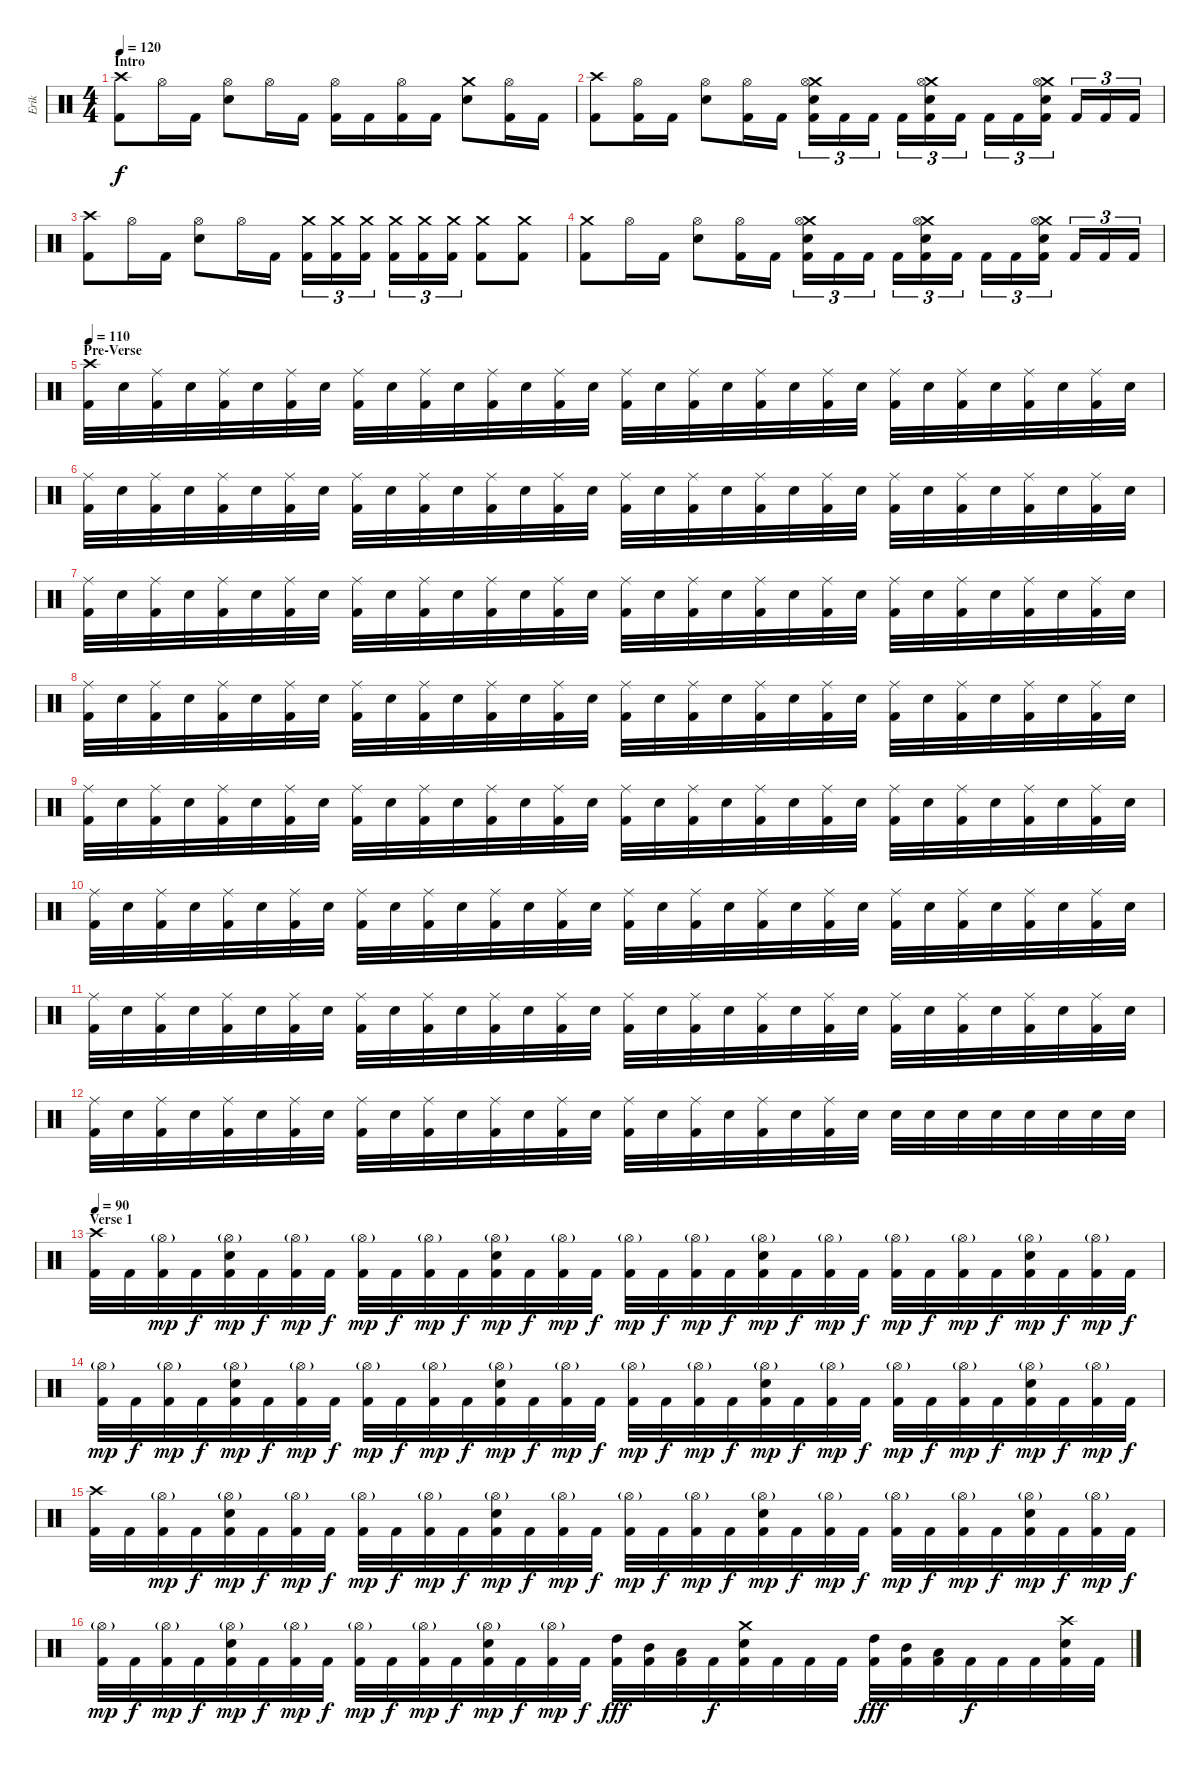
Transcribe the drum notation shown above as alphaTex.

\track ("Erik" "Erik") {instrument percussion}
\staff {score}
\articulation defaults
\ts (4 4)
\section ("" "Intro")
\tempo 120
\clef neutral
\ks c
("Crash high (hit)" "Kick (hit) 2").8{dy f} "Hi-Hat (open)".16 "Kick (hit) 2".16 ("Hi-Hat (open)" "Electric Snare (hit)").8 "Hi-Hat (open)".16 "Kick (hit) 2".16 ("Hi-Hat (open)" "Kick (hit) 2").16 "Kick (hit) 2".16 ("Hi-Hat (open)" "Kick (hit) 2").16 "Kick (hit) 2".16 ("Crash medium (hit)" "Electric Snare (hit)").8 ("Hi-Hat (open)" "Kick (hit) 2").16 "Kick (hit) 2".16 |
("Crash high (hit)" "Kick (hit) 2").8 ("Hi-Hat (open)" "Kick (hit) 2").16 "Kick (hit) 2".16 ("Hi-Hat (open)" "Electric Snare (hit)").8 ("Hi-Hat (open)" "Kick (hit) 2").16 "Kick (hit) 2".16 ("Crash medium (hit)" "Hi-Hat (open)" "Electric Snare (hit)" "Kick (hit) 2").16{tu (3 2)} "Kick (hit) 2".16{tu (3 2)} "Kick (hit) 2".16{tu (3 2)} "Kick (hit) 2".16{tu (3 2)} ("Crash medium (hit)" "Hi-Hat (open)" "Electric Snare (hit)" "Kick (hit) 2").16{tu (3 2)} "Kick (hit) 2".16{tu (3 2)} "Kick (hit) 2".16{tu (3 2)} "Kick (hit) 2".16{tu (3 2)} ("Crash medium (hit)" "Hi-Hat (open)" "Electric Snare (hit)" "Kick (hit) 2").16{tu (3 2)} "Kick (hit) 2".16{tu (3 2)} "Kick (hit) 2".16{tu (3 2)} "Kick (hit) 2".16{tu (3 2)} |
("Crash high (hit)" "Kick (hit) 2").8 "Hi-Hat (open)".16 "Kick (hit) 2".16 ("Hi-Hat (open)" "Electric Snare (hit)").8 "Hi-Hat (open)".16 "Kick (hit) 2".16 ("Crash medium (hit)" "Kick (hit) 2").16{tu (3 2)} ("Crash medium (hit)" "Kick (hit) 2").16{tu (3 2)} ("Crash medium (hit)" "Kick (hit) 2").16{tu (3 2)} ("Crash medium (hit)" "Kick (hit) 2").16{tu (3 2)} ("Crash medium (hit)" "Kick (hit) 2").16{tu (3 2)} ("Crash medium (hit)" "Kick (hit) 2").16{tu (3 2)} ("Crash medium (hit)" "Kick (hit) 2").8 ("Crash medium (hit)" "Kick (hit) 2").8 |
("Crash medium (hit)" "Kick (hit) 2").8 "Hi-Hat (open)".16 "Kick (hit) 2".16 ("Hi-Hat (open)" "Electric Snare (hit)").8 ("Hi-Hat (open)" "Kick (hit) 2").16 "Kick (hit) 2".16 ("Crash medium (hit)" "Hi-Hat (open)" "Electric Snare (hit)" "Kick (hit) 2").16{tu (3 2)} "Kick (hit) 2".16{tu (3 2)} "Kick (hit) 2".16{tu (3 2)} "Kick (hit) 2".16{tu (3 2)} ("Crash medium (hit)" "Hi-Hat (open)" "Electric Snare (hit)" "Kick (hit) 2").16{tu (3 2)} "Kick (hit) 2".16{tu (3 2)} "Kick (hit) 2".16{tu (3 2)} "Kick (hit) 2".16{tu (3 2)} ("Crash medium (hit)" "Hi-Hat (open)" "Electric Snare (hit)" "Kick (hit) 2").16{tu (3 2)} "Kick (hit) 2".16{tu (3 2)} "Kick (hit) 2".16{tu (3 2)} "Kick (hit) 2".16{tu (3 2)} |
\section ("" "Pre-Verse")
\tempo 110
("Crash high (hit)" "Kick (hit) 2").32 "Electric Snare (hit)".32 ("Ride (middle)" "Kick (hit) 2").32 "Electric Snare (hit)".32 ("Ride (middle)" "Kick (hit) 2").32 "Electric Snare (hit)".32 ("Ride (middle)" "Kick (hit) 2").32 "Electric Snare (hit)".32 ("Ride (middle)" "Kick (hit) 2").32 "Electric Snare (hit)".32 ("Ride (middle)" "Kick (hit) 2").32 "Electric Snare (hit)".32 ("Ride (middle)" "Kick (hit) 2").32 "Electric Snare (hit)".32 ("Ride (middle)" "Kick (hit) 2").32 "Electric Snare (hit)".32 ("Ride (middle)" "Kick (hit) 2").32 "Electric Snare (hit)".32 ("Ride (middle)" "Kick (hit) 2").32 "Electric Snare (hit)".32 ("Ride (middle)" "Kick (hit) 2").32 "Electric Snare (hit)".32 ("Ride (middle)" "Kick (hit) 2").32 "Electric Snare (hit)".32 ("Ride (middle)" "Kick (hit) 2").32 "Electric Snare (hit)".32 ("Ride (middle)" "Kick (hit) 2").32 "Electric Snare (hit)".32 ("Ride (middle)" "Kick (hit) 2").32 "Electric Snare (hit)".32 ("Ride (middle)" "Kick (hit) 2").32 "Electric Snare (hit)".32 |
("Ride (middle)" "Kick (hit) 2").32 "Electric Snare (hit)".32 ("Ride (middle)" "Kick (hit) 2").32 "Electric Snare (hit)".32 ("Ride (middle)" "Kick (hit) 2").32 "Electric Snare (hit)".32 ("Ride (middle)" "Kick (hit) 2").32 "Electric Snare (hit)".32 ("Ride (middle)" "Kick (hit) 2").32 "Electric Snare (hit)".32 ("Ride (middle)" "Kick (hit) 2").32 "Electric Snare (hit)".32 ("Ride (middle)" "Kick (hit) 2").32 "Electric Snare (hit)".32 ("Ride (middle)" "Kick (hit) 2").32 "Electric Snare (hit)".32 ("Ride (middle)" "Kick (hit) 2").32 "Electric Snare (hit)".32 ("Ride (middle)" "Kick (hit) 2").32 "Electric Snare (hit)".32 ("Ride (middle)" "Kick (hit) 2").32 "Electric Snare (hit)".32 ("Ride (middle)" "Kick (hit) 2").32 "Electric Snare (hit)".32 ("Ride (middle)" "Kick (hit) 2").32 "Electric Snare (hit)".32 ("Ride (middle)" "Kick (hit) 2").32 "Electric Snare (hit)".32 ("Ride (middle)" "Kick (hit) 2").32 "Electric Snare (hit)".32 ("Ride (middle)" "Kick (hit) 2").32 "Electric Snare (hit)".32 |
("Ride (middle)" "Kick (hit) 2").32 "Electric Snare (hit)".32 ("Ride (middle)" "Kick (hit) 2").32 "Electric Snare (hit)".32 ("Ride (middle)" "Kick (hit) 2").32 "Electric Snare (hit)".32 ("Ride (middle)" "Kick (hit) 2").32 "Electric Snare (hit)".32 ("Ride (middle)" "Kick (hit) 2").32 "Electric Snare (hit)".32 ("Ride (middle)" "Kick (hit) 2").32 "Electric Snare (hit)".32 ("Ride (middle)" "Kick (hit) 2").32 "Electric Snare (hit)".32 ("Ride (middle)" "Kick (hit) 2").32 "Electric Snare (hit)".32 ("Ride (middle)" "Kick (hit) 2").32 "Electric Snare (hit)".32 ("Ride (middle)" "Kick (hit) 2").32 "Electric Snare (hit)".32 ("Ride (middle)" "Kick (hit) 2").32 "Electric Snare (hit)".32 ("Ride (middle)" "Kick (hit) 2").32 "Electric Snare (hit)".32 ("Ride (middle)" "Kick (hit) 2").32 "Electric Snare (hit)".32 ("Ride (middle)" "Kick (hit) 2").32 "Electric Snare (hit)".32 ("Ride (middle)" "Kick (hit) 2").32 "Electric Snare (hit)".32 ("Ride (middle)" "Kick (hit) 2").32 "Electric Snare (hit)".32 |
("Ride (middle)" "Kick (hit) 2").32 "Electric Snare (hit)".32 ("Ride (middle)" "Kick (hit) 2").32 "Electric Snare (hit)".32 ("Ride (middle)" "Kick (hit) 2").32 "Electric Snare (hit)".32 ("Ride (middle)" "Kick (hit) 2").32 "Electric Snare (hit)".32 ("Ride (middle)" "Kick (hit) 2").32 "Electric Snare (hit)".32 ("Ride (middle)" "Kick (hit) 2").32 "Electric Snare (hit)".32 ("Ride (middle)" "Kick (hit) 2").32 "Electric Snare (hit)".32 ("Ride (middle)" "Kick (hit) 2").32 "Electric Snare (hit)".32 ("Ride (middle)" "Kick (hit) 2").32 "Electric Snare (hit)".32 ("Ride (middle)" "Kick (hit) 2").32 "Electric Snare (hit)".32 ("Ride (middle)" "Kick (hit) 2").32 "Electric Snare (hit)".32 ("Ride (middle)" "Kick (hit) 2").32 "Electric Snare (hit)".32 ("Ride (middle)" "Kick (hit) 2").32 "Electric Snare (hit)".32 ("Ride (middle)" "Kick (hit) 2").32 "Electric Snare (hit)".32 ("Ride (middle)" "Kick (hit) 2").32 "Electric Snare (hit)".32 ("Ride (middle)" "Kick (hit) 2").32 "Electric Snare (hit)".32 |
("Ride (middle)" "Kick (hit) 2").32 "Electric Snare (hit)".32 ("Ride (middle)" "Kick (hit) 2").32 "Electric Snare (hit)".32 ("Ride (middle)" "Kick (hit) 2").32 "Electric Snare (hit)".32 ("Ride (middle)" "Kick (hit) 2").32 "Electric Snare (hit)".32 ("Ride (middle)" "Kick (hit) 2").32 "Electric Snare (hit)".32 ("Ride (middle)" "Kick (hit) 2").32 "Electric Snare (hit)".32 ("Ride (middle)" "Kick (hit) 2").32 "Electric Snare (hit)".32 ("Ride (middle)" "Kick (hit) 2").32 "Electric Snare (hit)".32 ("Ride (middle)" "Kick (hit) 2").32 "Electric Snare (hit)".32 ("Ride (middle)" "Kick (hit) 2").32 "Electric Snare (hit)".32 ("Ride (middle)" "Kick (hit) 2").32 "Electric Snare (hit)".32 ("Ride (middle)" "Kick (hit) 2").32 "Electric Snare (hit)".32 ("Ride (middle)" "Kick (hit) 2").32 "Electric Snare (hit)".32 ("Ride (middle)" "Kick (hit) 2").32 "Electric Snare (hit)".32 ("Ride (middle)" "Kick (hit) 2").32 "Electric Snare (hit)".32 ("Ride (middle)" "Kick (hit) 2").32 "Electric Snare (hit)".32 |
("Ride (middle)" "Kick (hit) 2").32 "Electric Snare (hit)".32 ("Ride (middle)" "Kick (hit) 2").32 "Electric Snare (hit)".32 ("Ride (middle)" "Kick (hit) 2").32 "Electric Snare (hit)".32 ("Ride (middle)" "Kick (hit) 2").32 "Electric Snare (hit)".32 ("Ride (middle)" "Kick (hit) 2").32 "Electric Snare (hit)".32 ("Ride (middle)" "Kick (hit) 2").32 "Electric Snare (hit)".32 ("Ride (middle)" "Kick (hit) 2").32 "Electric Snare (hit)".32 ("Ride (middle)" "Kick (hit) 2").32 "Electric Snare (hit)".32 ("Ride (middle)" "Kick (hit) 2").32 "Electric Snare (hit)".32 ("Ride (middle)" "Kick (hit) 2").32 "Electric Snare (hit)".32 ("Ride (middle)" "Kick (hit) 2").32 "Electric Snare (hit)".32 ("Ride (middle)" "Kick (hit) 2").32 "Electric Snare (hit)".32 ("Ride (middle)" "Kick (hit) 2").32 "Electric Snare (hit)".32 ("Ride (middle)" "Kick (hit) 2").32 "Electric Snare (hit)".32 ("Ride (middle)" "Kick (hit) 2").32 "Electric Snare (hit)".32 ("Ride (middle)" "Kick (hit) 2").32 "Electric Snare (hit)".32 |
("Ride (middle)" "Kick (hit) 2").32 "Electric Snare (hit)".32 ("Ride (middle)" "Kick (hit) 2").32 "Electric Snare (hit)".32 ("Ride (middle)" "Kick (hit) 2").32 "Electric Snare (hit)".32 ("Ride (middle)" "Kick (hit) 2").32 "Electric Snare (hit)".32 ("Ride (middle)" "Kick (hit) 2").32 "Electric Snare (hit)".32 ("Ride (middle)" "Kick (hit) 2").32 "Electric Snare (hit)".32 ("Ride (middle)" "Kick (hit) 2").32 "Electric Snare (hit)".32 ("Ride (middle)" "Kick (hit) 2").32 "Electric Snare (hit)".32 ("Ride (middle)" "Kick (hit) 2").32 "Electric Snare (hit)".32 ("Ride (middle)" "Kick (hit) 2").32 "Electric Snare (hit)".32 ("Ride (middle)" "Kick (hit) 2").32 "Electric Snare (hit)".32 ("Ride (middle)" "Kick (hit) 2").32 "Electric Snare (hit)".32 ("Ride (middle)" "Kick (hit) 2").32 "Electric Snare (hit)".32 ("Ride (middle)" "Kick (hit) 2").32 "Electric Snare (hit)".32 ("Ride (middle)" "Kick (hit) 2").32 "Electric Snare (hit)".32 ("Ride (middle)" "Kick (hit) 2").32 "Electric Snare (hit)".32 |
("Ride (middle)" "Kick (hit) 2").32 "Electric Snare (hit)".32 ("Ride (middle)" "Kick (hit) 2").32 "Electric Snare (hit)".32 ("Ride (middle)" "Kick (hit) 2").32 "Electric Snare (hit)".32 ("Ride (middle)" "Kick (hit) 2").32 "Electric Snare (hit)".32 ("Ride (middle)" "Kick (hit) 2").32 "Electric Snare (hit)".32 ("Ride (middle)" "Kick (hit) 2").32 "Electric Snare (hit)".32 ("Ride (middle)" "Kick (hit) 2").32 "Electric Snare (hit)".32 ("Ride (middle)" "Kick (hit) 2").32 "Electric Snare (hit)".32 ("Ride (middle)" "Kick (hit) 2").32 "Electric Snare (hit)".32 ("Ride (middle)" "Kick (hit) 2").32 "Electric Snare (hit)".32 ("Ride (middle)" "Kick (hit) 2").32 "Electric Snare (hit)".32 ("Ride (middle)" "Kick (hit) 2").32 "Electric Snare (hit)".32 "Electric Snare (hit)".32 "Electric Snare (hit)".32 "Electric Snare (hit)".32 "Electric Snare (hit)".32 "Electric Snare (hit)".32 "Electric Snare (hit)".32 "Electric Snare (hit)".32 "Electric Snare (hit)".32 |
\section ("" "Verse 1")
\tempo 90
("Crash high (hit)" "Kick (hit) 2").32 "Kick (hit) 2".32 ("Hi-Hat (open)"{g} "Kick (hit) 2").32{dy mp} "Kick (hit) 2".32{dy f} ("Hi-Hat (open)"{g} "Electric Snare (hit)" "Kick (hit) 2").32{dy mp} "Kick (hit) 2".32{dy f} ("Hi-Hat (open)"{g} "Kick (hit) 2").32{dy mp} "Kick (hit) 2".32{dy f} ("Hi-Hat (open)"{g} "Kick (hit) 2").32{dy mp} "Kick (hit) 2".32{dy f} ("Hi-Hat (open)"{g} "Kick (hit) 2").32{dy mp} "Kick (hit) 2".32{dy f} ("Hi-Hat (open)"{g} "Electric Snare (hit)" "Kick (hit) 2").32{dy mp} "Kick (hit) 2".32{dy f} ("Hi-Hat (open)"{g} "Kick (hit) 2").32{dy mp} "Kick (hit) 2".32{dy f} ("Hi-Hat (open)"{g} "Kick (hit) 2").32{dy mp} "Kick (hit) 2".32{dy f} ("Hi-Hat (open)"{g} "Kick (hit) 2").32{dy mp} "Kick (hit) 2".32{dy f} ("Hi-Hat (open)"{g} "Electric Snare (hit)" "Kick (hit) 2").32{dy mp} "Kick (hit) 2".32{dy f} ("Hi-Hat (open)"{g} "Kick (hit) 2").32{dy mp} "Kick (hit) 2".32{dy f} ("Hi-Hat (open)"{g} "Kick (hit) 2").32{dy mp} "Kick (hit) 2".32{dy f} ("Hi-Hat (open)"{g} "Kick (hit) 2").32{dy mp} "Kick (hit) 2".32{dy f} ("Hi-Hat (open)"{g} "Electric Snare (hit)" "Kick (hit) 2").32{dy mp} "Kick (hit) 2".32{dy f} ("Hi-Hat (open)"{g} "Kick (hit) 2").32{dy mp} "Kick (hit) 2".32{dy f} |
("Hi-Hat (open)"{g} "Kick (hit) 2").32{dy mp} "Kick (hit) 2".32{dy f} ("Hi-Hat (open)"{g} "Kick (hit) 2").32{dy mp} "Kick (hit) 2".32{dy f} ("Hi-Hat (open)"{g} "Electric Snare (hit)" "Kick (hit) 2").32{dy mp} "Kick (hit) 2".32{dy f} ("Hi-Hat (open)"{g} "Kick (hit) 2").32{dy mp} "Kick (hit) 2".32{dy f} ("Hi-Hat (open)"{g} "Kick (hit) 2").32{dy mp} "Kick (hit) 2".32{dy f} ("Hi-Hat (open)"{g} "Kick (hit) 2").32{dy mp} "Kick (hit) 2".32{dy f} ("Hi-Hat (open)"{g} "Electric Snare (hit)" "Kick (hit) 2").32{dy mp} "Kick (hit) 2".32{dy f} ("Hi-Hat (open)"{g} "Kick (hit) 2").32{dy mp} "Kick (hit) 2".32{dy f} ("Hi-Hat (open)"{g} "Kick (hit) 2").32{dy mp} "Kick (hit) 2".32{dy f} ("Hi-Hat (open)"{g} "Kick (hit) 2").32{dy mp} "Kick (hit) 2".32{dy f} ("Hi-Hat (open)"{g} "Electric Snare (hit)" "Kick (hit) 2").32{dy mp} "Kick (hit) 2".32{dy f} ("Hi-Hat (open)"{g} "Kick (hit) 2").32{dy mp} "Kick (hit) 2".32{dy f} ("Hi-Hat (open)"{g} "Kick (hit) 2").32{dy mp} "Kick (hit) 2".32{dy f} ("Hi-Hat (open)"{g} "Kick (hit) 2").32{dy mp} "Kick (hit) 2".32{dy f} ("Hi-Hat (open)"{g} "Electric Snare (hit)" "Kick (hit) 2").32{dy mp} "Kick (hit) 2".32{dy f} ("Hi-Hat (open)"{g} "Kick (hit) 2").32{dy mp} "Kick (hit) 2".32{dy f} |
("Crash high (hit)" "Kick (hit) 2").32 "Kick (hit) 2".32 ("Hi-Hat (open)"{g} "Kick (hit) 2").32{dy mp} "Kick (hit) 2".32{dy f} ("Hi-Hat (open)"{g} "Electric Snare (hit)" "Kick (hit) 2").32{dy mp} "Kick (hit) 2".32{dy f} ("Hi-Hat (open)"{g} "Kick (hit) 2").32{dy mp} "Kick (hit) 2".32{dy f} ("Hi-Hat (open)"{g} "Kick (hit) 2").32{dy mp} "Kick (hit) 2".32{dy f} ("Hi-Hat (open)"{g} "Kick (hit) 2").32{dy mp} "Kick (hit) 2".32{dy f} ("Hi-Hat (open)"{g} "Electric Snare (hit)" "Kick (hit) 2").32{dy mp} "Kick (hit) 2".32{dy f} ("Hi-Hat (open)"{g} "Kick (hit) 2").32{dy mp} "Kick (hit) 2".32{dy f} ("Hi-Hat (open)"{g} "Kick (hit) 2").32{dy mp} "Kick (hit) 2".32{dy f} ("Hi-Hat (open)"{g} "Kick (hit) 2").32{dy mp} "Kick (hit) 2".32{dy f} ("Hi-Hat (open)"{g} "Electric Snare (hit)" "Kick (hit) 2").32{dy mp} "Kick (hit) 2".32{dy f} ("Hi-Hat (open)"{g} "Kick (hit) 2").32{dy mp} "Kick (hit) 2".32{dy f} ("Hi-Hat (open)"{g} "Kick (hit) 2").32{dy mp} "Kick (hit) 2".32{dy f} ("Hi-Hat (open)"{g} "Kick (hit) 2").32{dy mp} "Kick (hit) 2".32{dy f} ("Hi-Hat (open)"{g} "Electric Snare (hit)" "Kick (hit) 2").32{dy mp} "Kick (hit) 2".32{dy f} ("Hi-Hat (open)"{g} "Kick (hit) 2").32{dy mp} "Kick (hit) 2".32{dy f} |
("Hi-Hat (open)"{g} "Kick (hit) 2").32{dy mp} "Kick (hit) 2".32{dy f} ("Hi-Hat (open)"{g} "Kick (hit) 2").32{dy mp} "Kick (hit) 2".32{dy f} ("Hi-Hat (open)"{g} "Electric Snare (hit)" "Kick (hit) 2").32{dy mp} "Kick (hit) 2".32{dy f} ("Hi-Hat (open)"{g} "Kick (hit) 2").32{dy mp} "Kick (hit) 2".32{dy f} ("Hi-Hat (open)"{g} "Kick (hit) 2").32{dy mp} "Kick (hit) 2".32{dy f} ("Hi-Hat (open)"{g} "Kick (hit) 2").32{dy mp} "Kick (hit) 2".32{dy f} ("Hi-Hat (open)"{g} "Electric Snare (hit)" "Kick (hit) 2").32{dy mp} "Kick (hit) 2".32{dy f} ("Hi-Hat (open)"{g} "Kick (hit) 2").32{dy mp} "Kick (hit) 2".32{dy f} ("High Tom (hit)" "Kick (hit) 2").32{dy fff} ("Mid Tom (hit)" "Kick (hit) 2").32 ("Low Tom (hit)" "Kick (hit) 2").32 "Kick (hit) 2".32{dy f} ("Crash medium (hit)" "Electric Snare (hit)" "Kick (hit) 2").32 "Kick (hit) 2".32 "Kick (hit) 2".32 "Kick (hit) 2".32 ("High Tom (hit)" "Kick (hit) 2").32{dy fff} ("Mid Tom (hit)" "Kick (hit) 2").32 ("Low Tom (hit)" "Kick (hit) 2").32 "Kick (hit) 2".32{dy f} "Kick (hit) 2".32 "Kick (hit) 2".32 ("Crash high (hit)" "Electric Snare (hit)" "Kick (hit) 2").32 "Kick (hit) 2".32
